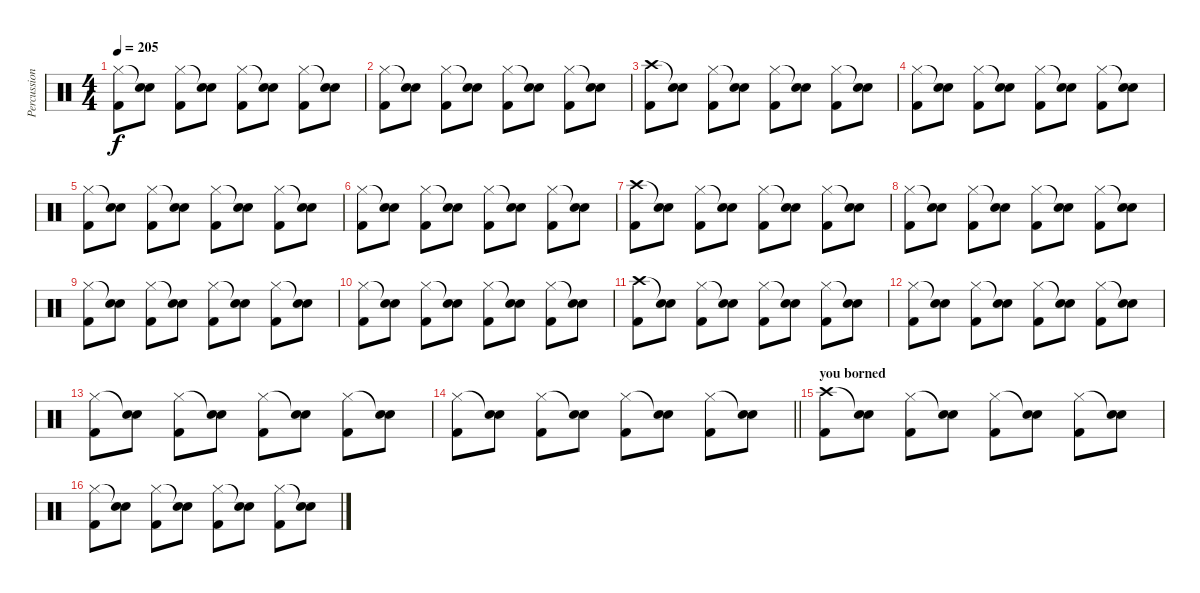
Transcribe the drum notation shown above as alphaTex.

\track ("Percussioni" "Percussion") {instrument percussion}
\staff {score}
\articulation defaults
\ts (4 4)
\tempo 205
\clef neutral
\ks c
("Hi-Hat (closed)" "Kick (hit) 2").8{dy f} ("Snare (hit)"{t} "Snare (hit) 2").8 ("Hi-Hat (closed)" "Kick (hit) 2").8 ("Snare (hit)"{t} "Snare (hit) 2").8 ("Hi-Hat (closed)" "Kick (hit) 2").8 ("Snare (hit)"{t} "Snare (hit) 2").8 ("Hi-Hat (closed)" "Kick (hit) 2").8 ("Snare (hit)"{t} "Snare (hit) 2").8 |
("Hi-Hat (closed)" "Kick (hit) 2").8 ("Snare (hit)"{t} "Snare (hit) 2").8 ("Hi-Hat (closed)" "Kick (hit) 2").8 ("Snare (hit)"{t} "Snare (hit) 2").8 ("Hi-Hat (closed)" "Kick (hit) 2").8 ("Snare (hit)"{t} "Snare (hit) 2").8 ("Hi-Hat (closed)" "Kick (hit) 2").8 ("Snare (hit)"{t} "Snare (hit) 2").8 |
("Crash high (hit)" "Kick (hit) 2").8 ("Snare (hit)"{t} "Snare (hit) 2").8 ("Hi-Hat (closed)" "Kick (hit) 2").8 ("Snare (hit)"{t} "Snare (hit) 2").8 ("Hi-Hat (closed)" "Kick (hit) 2").8 ("Snare (hit)"{t} "Snare (hit) 2").8 ("Hi-Hat (closed)" "Kick (hit) 2").8 ("Snare (hit)"{t} "Snare (hit) 2").8 |
("Hi-Hat (closed)" "Kick (hit) 2").8 ("Snare (hit)"{t} "Snare (hit) 2").8 ("Hi-Hat (closed)" "Kick (hit) 2").8 ("Snare (hit)"{t} "Snare (hit) 2").8 ("Hi-Hat (closed)" "Kick (hit) 2").8 ("Snare (hit)"{t} "Snare (hit) 2").8 ("Hi-Hat (closed)" "Kick (hit) 2").8 ("Snare (hit)"{t} "Snare (hit) 2").8 |
("Hi-Hat (closed)" "Kick (hit) 2").8 ("Snare (hit)"{t} "Snare (hit) 2").8 ("Hi-Hat (closed)" "Kick (hit) 2").8 ("Snare (hit)"{t} "Snare (hit) 2").8 ("Hi-Hat (closed)" "Kick (hit) 2").8 ("Snare (hit)"{t} "Snare (hit) 2").8 ("Hi-Hat (closed)" "Kick (hit) 2").8 ("Snare (hit)"{t} "Snare (hit) 2").8 |
("Hi-Hat (closed)" "Kick (hit) 2").8 ("Snare (hit)"{t} "Snare (hit) 2").8 ("Hi-Hat (closed)" "Kick (hit) 2").8 ("Snare (hit)"{t} "Snare (hit) 2").8 ("Hi-Hat (closed)" "Kick (hit) 2").8 ("Snare (hit)"{t} "Snare (hit) 2").8 ("Hi-Hat (closed)" "Kick (hit) 2").8 ("Snare (hit)"{t} "Snare (hit) 2").8 |
("Crash high (hit)" "Kick (hit) 2").8 ("Snare (hit)"{t} "Snare (hit) 2").8 ("Hi-Hat (closed)" "Kick (hit) 2").8 ("Snare (hit)"{t} "Snare (hit) 2").8 ("Hi-Hat (closed)" "Kick (hit) 2").8 ("Snare (hit)"{t} "Snare (hit) 2").8 ("Hi-Hat (closed)" "Kick (hit) 2").8 ("Snare (hit)"{t} "Snare (hit) 2").8 |
("Hi-Hat (closed)" "Kick (hit) 2").8 ("Snare (hit)"{t} "Snare (hit) 2").8 ("Hi-Hat (closed)" "Kick (hit) 2").8 ("Snare (hit)"{t} "Snare (hit) 2").8 ("Hi-Hat (closed)" "Kick (hit) 2").8 ("Snare (hit)"{t} "Snare (hit) 2").8 ("Hi-Hat (closed)" "Kick (hit) 2").8 ("Snare (hit)"{t} "Snare (hit) 2").8 |
("Hi-Hat (closed)" "Kick (hit) 2").8 ("Snare (hit)"{t} "Snare (hit) 2").8 ("Hi-Hat (closed)" "Kick (hit) 2").8 ("Snare (hit)"{t} "Snare (hit) 2").8 ("Hi-Hat (closed)" "Kick (hit) 2").8 ("Snare (hit)"{t} "Snare (hit) 2").8 ("Hi-Hat (closed)" "Kick (hit) 2").8 ("Snare (hit)"{t} "Snare (hit) 2").8 |
("Hi-Hat (closed)" "Kick (hit) 2").8 ("Snare (hit)"{t} "Snare (hit) 2").8 ("Hi-Hat (closed)" "Kick (hit) 2").8 ("Snare (hit)"{t} "Snare (hit) 2").8 ("Hi-Hat (closed)" "Kick (hit) 2").8 ("Snare (hit)"{t} "Snare (hit) 2").8 ("Hi-Hat (closed)" "Kick (hit) 2").8 ("Snare (hit)"{t} "Snare (hit) 2").8 |
("Crash high (hit)" "Kick (hit) 2").8 ("Snare (hit)"{t} "Snare (hit) 2").8 ("Hi-Hat (closed)" "Kick (hit) 2").8 ("Snare (hit)"{t} "Snare (hit) 2").8 ("Hi-Hat (closed)" "Kick (hit) 2").8 ("Snare (hit)"{t} "Snare (hit) 2").8 ("Hi-Hat (closed)" "Kick (hit) 2").8 ("Snare (hit)"{t} "Snare (hit) 2").8 |
("Hi-Hat (closed)" "Kick (hit) 2").8 ("Snare (hit)"{t} "Snare (hit) 2").8 ("Hi-Hat (closed)" "Kick (hit) 2").8 ("Snare (hit)"{t} "Snare (hit) 2").8 ("Hi-Hat (closed)" "Kick (hit) 2").8 ("Snare (hit)"{t} "Snare (hit) 2").8 ("Hi-Hat (closed)" "Kick (hit) 2").8 ("Snare (hit)"{t} "Snare (hit) 2").8 |
("Hi-Hat (closed)" "Kick (hit) 2").8 ("Snare (hit)"{t} "Snare (hit) 2").8 ("Hi-Hat (closed)" "Kick (hit) 2").8 ("Snare (hit)"{t} "Snare (hit) 2").8 ("Hi-Hat (closed)" "Kick (hit) 2").8 ("Snare (hit)"{t} "Snare (hit) 2").8 ("Hi-Hat (closed)" "Kick (hit) 2").8 ("Snare (hit)"{t} "Snare (hit) 2").8 |
\barLineRight lightlight
("Hi-Hat (closed)" "Kick (hit) 2").8 ("Snare (hit)"{t} "Snare (hit) 2").8 ("Hi-Hat (closed)" "Kick (hit) 2").8 ("Snare (hit)"{t} "Snare (hit) 2").8 ("Hi-Hat (closed)" "Kick (hit) 2").8 ("Snare (hit)"{t} "Snare (hit) 2").8 ("Hi-Hat (closed)" "Kick (hit) 2").8 ("Snare (hit)"{t} "Snare (hit) 2").8 |
\section ("" "you borned")
("Crash high (hit)" "Kick (hit) 2").8 ("Snare (hit)"{t} "Snare (hit) 2").8 ("Hi-Hat (closed)" "Kick (hit) 2").8 ("Snare (hit)"{t} "Snare (hit) 2").8 ("Hi-Hat (closed)" "Kick (hit) 2").8 ("Snare (hit)"{t} "Snare (hit) 2").8 ("Hi-Hat (closed)" "Kick (hit) 2").8 ("Snare (hit)"{t} "Snare (hit) 2").8 |
("Hi-Hat (closed)" "Kick (hit) 2").8 ("Snare (hit)"{t} "Snare (hit) 2").8 ("Hi-Hat (closed)" "Kick (hit) 2").8 ("Snare (hit)"{t} "Snare (hit) 2").8 ("Hi-Hat (closed)" "Kick (hit) 2").8 ("Snare (hit)"{t} "Snare (hit) 2").8 ("Hi-Hat (closed)" "Kick (hit) 2").8 ("Snare (hit)"{t} "Snare (hit) 2").8
